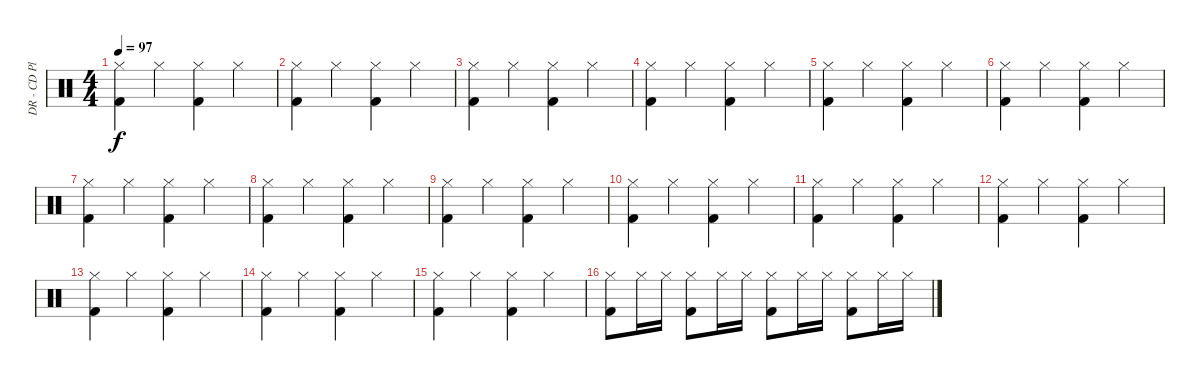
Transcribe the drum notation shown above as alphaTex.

\track ("DR - CD Player" "DR - CD Pl") {instrument percussion}
\staff {score}
\articulation defaults
\ts (4 4)
\tempo 97
\clef neutral
\ks c
("Kick (hit) 2" "Hi-Hat (closed)").4{dy f} "Hi-Hat (closed)".4 ("Kick (hit) 2" "Hi-Hat (closed)").4 "Hi-Hat (closed)".4 |
("Kick (hit) 2" "Hi-Hat (closed)").4 "Hi-Hat (closed)".4 ("Kick (hit) 2" "Hi-Hat (closed)").4 "Hi-Hat (closed)".4 |
("Kick (hit) 2" "Hi-Hat (closed)").4 "Hi-Hat (closed)".4 ("Kick (hit) 2" "Hi-Hat (closed)").4 "Hi-Hat (closed)".4 |
("Kick (hit) 2" "Hi-Hat (closed)").4 "Hi-Hat (closed)".4 ("Kick (hit) 2" "Hi-Hat (closed)").4 "Hi-Hat (closed)".4 |
("Kick (hit) 2" "Hi-Hat (closed)").4 "Hi-Hat (closed)".4 ("Kick (hit) 2" "Hi-Hat (closed)").4 "Hi-Hat (closed)".4 |
("Kick (hit) 2" "Hi-Hat (closed)").4 "Hi-Hat (closed)".4 ("Kick (hit) 2" "Hi-Hat (closed)").4 "Hi-Hat (closed)".4 |
("Kick (hit) 2" "Hi-Hat (closed)").4 "Hi-Hat (closed)".4 ("Kick (hit) 2" "Hi-Hat (closed)").4 "Hi-Hat (closed)".4 |
("Kick (hit) 2" "Hi-Hat (closed)").4 "Hi-Hat (closed)".4 ("Kick (hit) 2" "Hi-Hat (closed)").4 "Hi-Hat (closed)".4 |
("Kick (hit) 2" "Hi-Hat (closed)").4 "Hi-Hat (closed)".4 ("Kick (hit) 2" "Hi-Hat (closed)").4 "Hi-Hat (closed)".4 |
("Kick (hit) 2" "Hi-Hat (closed)").4 "Hi-Hat (closed)".4 ("Kick (hit) 2" "Hi-Hat (closed)").4 "Hi-Hat (closed)".4 |
("Kick (hit) 2" "Hi-Hat (closed)").4 "Hi-Hat (closed)".4 ("Kick (hit) 2" "Hi-Hat (closed)").4 "Hi-Hat (closed)".4 |
("Kick (hit) 2" "Hi-Hat (closed)").4 "Hi-Hat (closed)".4 ("Kick (hit) 2" "Hi-Hat (closed)").4 "Hi-Hat (closed)".4 |
("Kick (hit) 2" "Hi-Hat (closed)").4 "Hi-Hat (closed)".4 ("Kick (hit) 2" "Hi-Hat (closed)").4 "Hi-Hat (closed)".4 |
("Kick (hit) 2" "Hi-Hat (closed)").4 "Hi-Hat (closed)".4 ("Kick (hit) 2" "Hi-Hat (closed)").4 "Hi-Hat (closed)".4 |
("Kick (hit) 2" "Hi-Hat (closed)").4 "Hi-Hat (closed)".4 ("Kick (hit) 2" "Hi-Hat (closed)").4 "Hi-Hat (closed)".4 |
("Kick (hit) 2" "Hi-Hat (closed)").8 "Hi-Hat (closed)".16 "Hi-Hat (closed)".16 ("Kick (hit) 2" "Hi-Hat (closed)").8 "Hi-Hat (closed)".16 "Hi-Hat (closed)".16 ("Kick (hit) 2" "Hi-Hat (closed)").8 "Hi-Hat (closed)".16 "Hi-Hat (closed)".16 ("Kick (hit) 2" "Hi-Hat (closed)").8 "Hi-Hat (closed)".16 "Hi-Hat (closed)".16
